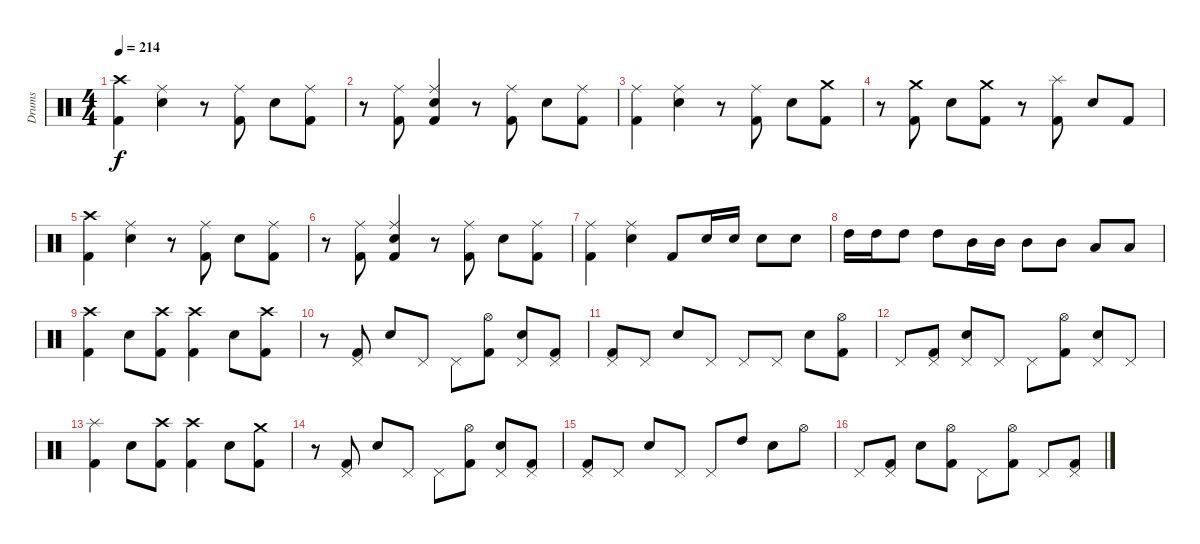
\track ("Drums" "Drums") {instrument percussion}
\staff {score}
\articulation defaults
\ts (4 4)
\tempo 214
\clef neutral
\ks c
("Crash high (hit)" "Kick (hit) 2").4{dy f} ("Ride (middle)" "Electric Snare (hit)").4 r.8 ("Ride (middle)" "Kick (hit) 2").8 "Electric Snare (hit)".8 ("Ride (middle)" "Kick (hit) 2").8 |
r.8 ("Ride (middle)" "Kick (hit) 2").8 ("Ride (middle)" "Electric Snare (hit)" "Kick (hit) 2").4 r.8 ("Ride (middle)" "Kick (hit) 2").8 "Electric Snare (hit)".8 ("Ride (middle)" "Kick (hit) 2").8 |
("Ride (middle)" "Kick (hit) 2").4 ("Ride (middle)" "Electric Snare (hit)").4 r.8 ("Ride (middle)" "Kick (hit) 2").8 "Electric Snare (hit)".8 ("Crash medium (hit)" "Kick (hit) 2").8 |
r.8 ("Crash medium (hit)" "Kick (hit) 2").8 "Electric Snare (hit)".8 ("Crash medium (hit)" "Kick (hit) 2").8 r.8 ("Splash (hit)" "Kick (hit) 2").8 "Electric Snare (hit)".8 "Kick (hit) 2".8 |
("Crash high (hit)" "Kick (hit) 2").4 ("Ride (middle)" "Electric Snare (hit)").4 r.8 ("Ride (middle)" "Kick (hit) 2").8 "Electric Snare (hit)".8 ("Ride (middle)" "Kick (hit) 2").8 |
r.8 ("Ride (middle)" "Kick (hit) 2").8 ("Ride (middle)" "Electric Snare (hit)" "Kick (hit) 2").4 r.8 ("Ride (middle)" "Kick (hit) 2").8 "Electric Snare (hit)".8 ("Ride (middle)" "Kick (hit) 2").8 |
("Ride (middle)" "Kick (hit) 2").4 ("Ride (middle)" "Electric Snare (hit)").4 "Kick (hit) 2".8 "Electric Snare (hit)".16 "Electric Snare (hit)".16 "Electric Snare (hit)".8 "Electric Snare (hit)".8 |
"High Tom (hit)".16 "High Tom (hit)".16 "High Tom (hit)".8 "High Tom (hit)".8 "Mid Tom (hit)".16 "Mid Tom (hit)".16 "Mid Tom (hit)".8 "Mid Tom (hit)".8 "Low Tom (hit)".8 "Low Tom (hit)".8 |
("Crash high (hit)" "Kick (hit) 2").4 "Electric Snare (hit)".8 ("Crash high (hit)" "Kick (hit) 2").8 ("Crash high (hit)" "Kick (hit) 2").4 "Electric Snare (hit)".8 ("Crash high (hit)" "Kick (hit) 2").8 |
r.8 ("Pedal Hi-Hat (hit)" "Kick (hit) 2").8 "Electric Snare (hit)".8 "Pedal Hi-Hat (hit)".8 "Pedal Hi-Hat (hit)".8 ("Hi-Hat (open)" "Kick (hit) 2").8 ("Pedal Hi-Hat (hit)" "Electric Snare (hit)").8 ("Pedal Hi-Hat (hit)" "Kick (hit) 2").8 |
("Pedal Hi-Hat (hit)" "Kick (hit) 2").8 "Pedal Hi-Hat (hit)".8 "Electric Snare (hit)".8 "Pedal Hi-Hat (hit)".8 "Pedal Hi-Hat (hit)".8 "Pedal Hi-Hat (hit)".8 "Electric Snare (hit)".8 ("Hi-Hat (open)" "Kick (hit) 2").8 |
"Pedal Hi-Hat (hit)".8 ("Pedal Hi-Hat (hit)" "Kick (hit) 2").8 ("Pedal Hi-Hat (hit)" "Electric Snare (hit)").8 "Pedal Hi-Hat (hit)".8 "Pedal Hi-Hat (hit)".8 ("Hi-Hat (open)" "Kick (hit) 2").8 ("Pedal Hi-Hat (hit)" "Electric Snare (hit)").8 "Pedal Hi-Hat (hit)".8 |
("Splash (hit)" "Kick (hit) 2").4 "Electric Snare (hit)".8 ("Crash high (hit)" "Kick (hit) 2").8 ("Crash high (hit)" "Kick (hit) 2").4 "Electric Snare (hit)".8 ("Crash medium (hit)" "Kick (hit) 2").8 |
r.8 ("Pedal Hi-Hat (hit)" "Kick (hit) 2").8 "Electric Snare (hit)".8 "Pedal Hi-Hat (hit)".8 "Pedal Hi-Hat (hit)".8 ("Hi-Hat (open)" "Kick (hit) 2").8 ("Pedal Hi-Hat (hit)" "Electric Snare (hit)").8 ("Pedal Hi-Hat (hit)" "Kick (hit) 2").8 |
("Pedal Hi-Hat (hit)" "Kick (hit) 2").8 "Pedal Hi-Hat (hit)".8 "Electric Snare (hit)".8 "Pedal Hi-Hat (hit)".8 "Pedal Hi-Hat (hit)".8 "High Tom (hit)".8 "Electric Snare (hit)".8 "Hi-Hat (open)".8 |
"Pedal Hi-Hat (hit)".8 ("Pedal Hi-Hat (hit)" "Kick (hit) 2").8 "Electric Snare (hit)".8 ("Hi-Hat (open)" "Kick (hit) 2").8 "Pedal Hi-Hat (hit)".8 ("Hi-Hat (open)" "Kick (hit) 2").8 "Pedal Hi-Hat (hit)".8 ("Pedal Hi-Hat (hit)" "Kick (hit) 2").8
